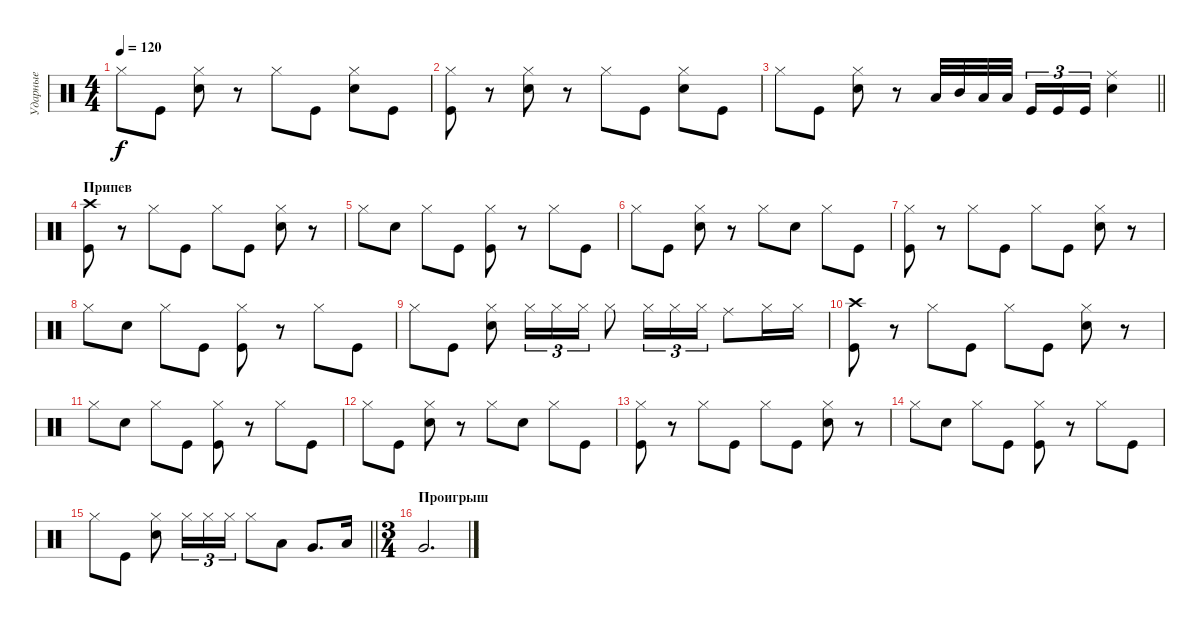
\track ("Ударные" "Ударные") {instrument percussion}
\staff {score}
\articulation defaults
\ts (4 4)
\tempo 120
\clef neutral
\ks c "Hi-Hat (closed)".8{dy f} "Kick (hit)".8
("Hi-Hat (closed)" "Snare (hit) 2").8 r.8 "Hi-Hat (closed)".8 "Kick (hit)".8 ("Hi-Hat (closed)" "Snare (hit) 2").8 "Kick (hit)".8 |
("Hi-Hat (closed)" "Kick (hit)").8 r.8 ("Hi-Hat (closed)" "Snare (hit) 2").8 r.8 "Hi-Hat (closed)".8 "Kick (hit)".8 ("Hi-Hat (closed)" "Snare (hit) 2").8 "Kick (hit)".8 |
\barLineRight lightlight "Hi-Hat (closed)".8 "Kick (hit)".8
("Hi-Hat (closed)" "Snare (hit) 2").8 r.8 "Low Tom (hit)".32 "Mid Tom (hit)".32 "Low Tom (hit)".32 "Low Tom (hit)".32{beam splitsecondary} "Kick (hit)".16{tu (3 2)} "Kick (hit)".16{tu (3 2)} "Kick (hit)".16{tu (3 2)} ("Ride (middle)" "Snare (hit) 2").4 |
\section ("" "Припев")
("Crash high (hit)" "Kick (hit)").8 r.8 "Hi-Hat (closed)".8 "Kick (hit)".8 "Hi-Hat (closed)".8 "Kick (hit)".8 ("Hi-Hat (closed)" "Snare (hit) 2").8 r.8 |
"Hi-Hat (closed)".8 "Snare (hit) 2".8 "Hi-Hat (closed)".8 "Kick (hit)".8 ("Hi-Hat (closed)" "Kick (hit)").8 r.8 "Hi-Hat (closed)".8 "Kick (hit)".8 |
"Hi-Hat (closed)".8 "Kick (hit)".8 ("Hi-Hat (closed)" "Snare (hit) 2").8 r.8 "Hi-Hat (closed)".8 "Snare (hit) 2".8 "Hi-Hat (closed)".8 "Kick (hit)".8 |
("Hi-Hat (closed)" "Kick (hit)").8 r.8 "Hi-Hat (closed)".8 "Kick (hit)".8 "Hi-Hat (closed)".8 "Kick (hit)".8 ("Hi-Hat (closed)" "Snare (hit) 2").8 r.8 |
"Hi-Hat (closed)".8 "Snare (hit) 2".8 "Hi-Hat (closed)".8 "Kick (hit)".8 ("Hi-Hat (closed)" "Kick (hit)").8 r.8 "Hi-Hat (closed)".8 "Kick (hit)".8 |
"Hi-Hat (closed)".8 "Kick (hit)".8 ("Hi-Hat (closed)" "Snare (hit) 2").8 "Hi-Hat (closed)".16{tu (3 2)} "Hi-Hat (closed)".16{tu (3 2)} "Hi-Hat (closed)".16{tu (3 2)} "Hi-Hat (closed)".8 "Hi-Hat (closed)".16{tu (3 2)} "Hi-Hat (closed)".16{tu (3 2)} "Hi-Hat (closed)".16{tu (3 2)} "Ride (middle)".8 "Hi-Hat (closed)".16 "Hi-Hat (closed)".16 |
("Crash high (hit)" "Kick (hit)").8 r.8 "Hi-Hat (closed)".8 "Kick (hit)".8 "Hi-Hat (closed)".8 "Kick (hit)".8 ("Hi-Hat (closed)" "Snare (hit) 2").8 r.8 |
"Hi-Hat (closed)".8 "Snare (hit) 2".8 "Hi-Hat (closed)".8 "Kick (hit)".8 ("Hi-Hat (closed)" "Kick (hit)").8 r.8 "Hi-Hat (closed)".8 "Kick (hit)".8 |
"Hi-Hat (closed)".8 "Kick (hit)".8 ("Hi-Hat (closed)" "Snare (hit) 2").8 r.8 "Hi-Hat (closed)".8 "Snare (hit) 2".8 "Hi-Hat (closed)".8 "Kick (hit)".8 |
("Hi-Hat (closed)" "Kick (hit)").8 r.8 "Hi-Hat (closed)".8 "Kick (hit)".8 "Hi-Hat (closed)".8 "Kick (hit)".8 ("Hi-Hat (closed)" "Snare (hit) 2").8 r.8 |
"Hi-Hat (closed)".8 "Snare (hit) 2".8 "Hi-Hat (closed)".8 "Kick (hit)".8 ("Hi-Hat (closed)" "Kick (hit)").8 r.8 "Hi-Hat (closed)".8 "Kick (hit)".8 |
\barLineRight lightlight "Hi-Hat (closed)".8 "Kick (hit)".8
("Hi-Hat (closed)" "Snare (hit) 2").8 "Hi-Hat (closed)".16{tu (3 2)} "Hi-Hat (closed)".16{tu (3 2)} "Hi-Hat (closed)".16{tu (3 2)} "Hi-Hat (closed)".8 "Low Tom (hit)".8 "Very Low Tom (hit)".8{d} "Low Tom (hit)".16 |
\ts (3 4)
\section ("" "Проигрыш")
"Very Low Tom (hit)".2{d}
